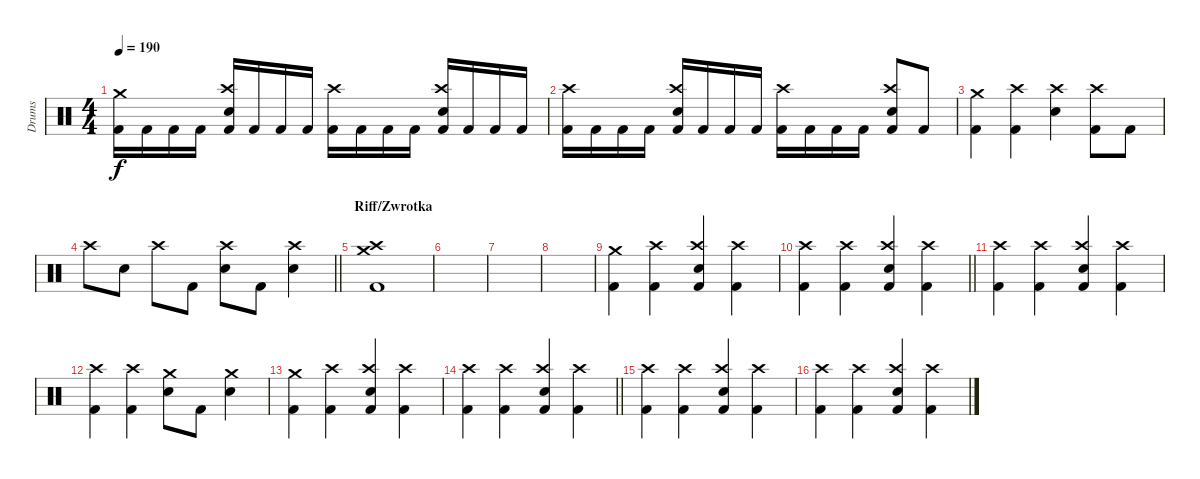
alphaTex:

\track ("Drums" "Drums") {instrument percussion}
\staff {score}
\articulation defaults
\ts (4 4)
\tempo 190
\clef neutral
\ks c
("Crash medium (hit)" "Kick (hit) 2").16{dy f} "Kick (hit) 2".16 "Kick (hit) 2".16 "Kick (hit) 2".16 ("Crash high (hit)" "Snare (hit) 2" "Kick (hit) 2").16 "Kick (hit) 2".16 "Kick (hit) 2".16 "Kick (hit) 2".16 ("Crash high (hit)" "Kick (hit) 2").16 "Kick (hit) 2".16 "Kick (hit) 2".16 "Kick (hit) 2".16 ("Crash high (hit)" "Snare (hit) 2" "Kick (hit) 2").16 "Kick (hit) 2".16 "Kick (hit) 2".16 "Kick (hit) 2".16 |
("Crash high (hit)" "Kick (hit) 2").16 "Kick (hit) 2".16 "Kick (hit) 2".16 "Kick (hit) 2".16 ("Crash high (hit)" "Snare (hit) 2" "Kick (hit) 2").16 "Kick (hit) 2".16 "Kick (hit) 2".16 "Kick (hit) 2".16 ("Crash high (hit)" "Kick (hit) 2").16 "Kick (hit) 2".16 "Kick (hit) 2".16 "Kick (hit) 2".16 ("Crash high (hit)" "Snare (hit) 2" "Kick (hit) 2").8 "Kick (hit) 2".8 |
("Crash medium (hit)" "Kick (hit) 2").4 ("Crash high (hit)" "Kick (hit) 2").4 ("Crash high (hit)" "Snare (hit) 2").4 ("Crash high (hit)" "Kick (hit) 2").8 "Kick (hit) 2".8 |
\barLineRight lightlight "Crash high (hit)".8 "Snare (hit) 2".8 "Crash high (hit)".8 "Kick (hit) 2".8
("Crash high (hit)" "Snare (hit) 2").8 "Kick (hit) 2".8 ("Crash high (hit)" "Snare (hit) 2").4 |
\section ("" "Riff/Zwrotka")
("Crash high (hit)" "Crash medium (hit)" "Kick (hit) 2").1 |
|
|
|
("Crash medium (hit)" "Kick (hit) 2").4 ("Crash high (hit)" "Kick (hit) 2").4 ("Crash high (hit)" "Snare (hit) 2" "Kick (hit) 2").4 ("Crash high (hit)" "Kick (hit) 2").4 |
\barLineRight lightlight
("Crash high (hit)" "Kick (hit) 2").4 ("Crash high (hit)" "Kick (hit) 2").4 ("Crash high (hit)" "Snare (hit) 2" "Kick (hit) 2").4 ("Crash high (hit)" "Kick (hit) 2").4 |
("Crash high (hit)" "Kick (hit) 2").4 ("Crash high (hit)" "Kick (hit) 2").4 ("Crash high (hit)" "Snare (hit) 2" "Kick (hit) 2").4 ("Crash high (hit)" "Kick (hit) 2").4 |
("Crash high (hit)" "Kick (hit) 2").4 ("Crash high (hit)" "Kick (hit) 2").4 ("Crash medium (hit)" "Snare (hit) 2").8 "Kick (hit) 2".8 ("Crash medium (hit)" "Snare (hit) 2").4 |
("Crash medium (hit)" "Kick (hit) 2").4 ("Crash high (hit)" "Kick (hit) 2").4 ("Crash high (hit)" "Snare (hit) 2" "Kick (hit) 2").4 ("Crash high (hit)" "Kick (hit) 2").4 |
\barLineRight lightlight
("Crash high (hit)" "Kick (hit) 2").4 ("Crash high (hit)" "Kick (hit) 2").4 ("Crash high (hit)" "Snare (hit) 2" "Kick (hit) 2").4 ("Crash high (hit)" "Kick (hit) 2").4 |
("Crash high (hit)" "Kick (hit) 2").4 ("Crash high (hit)" "Kick (hit) 2").4 ("Crash high (hit)" "Snare (hit) 2" "Kick (hit) 2").4 ("Crash high (hit)" "Kick (hit) 2").4 |
("Crash high (hit)" "Kick (hit) 2").4 ("Crash high (hit)" "Kick (hit) 2").4 ("Crash high (hit)" "Snare (hit) 2" "Kick (hit) 2").4 ("Crash high (hit)" "Kick (hit) 2").4
